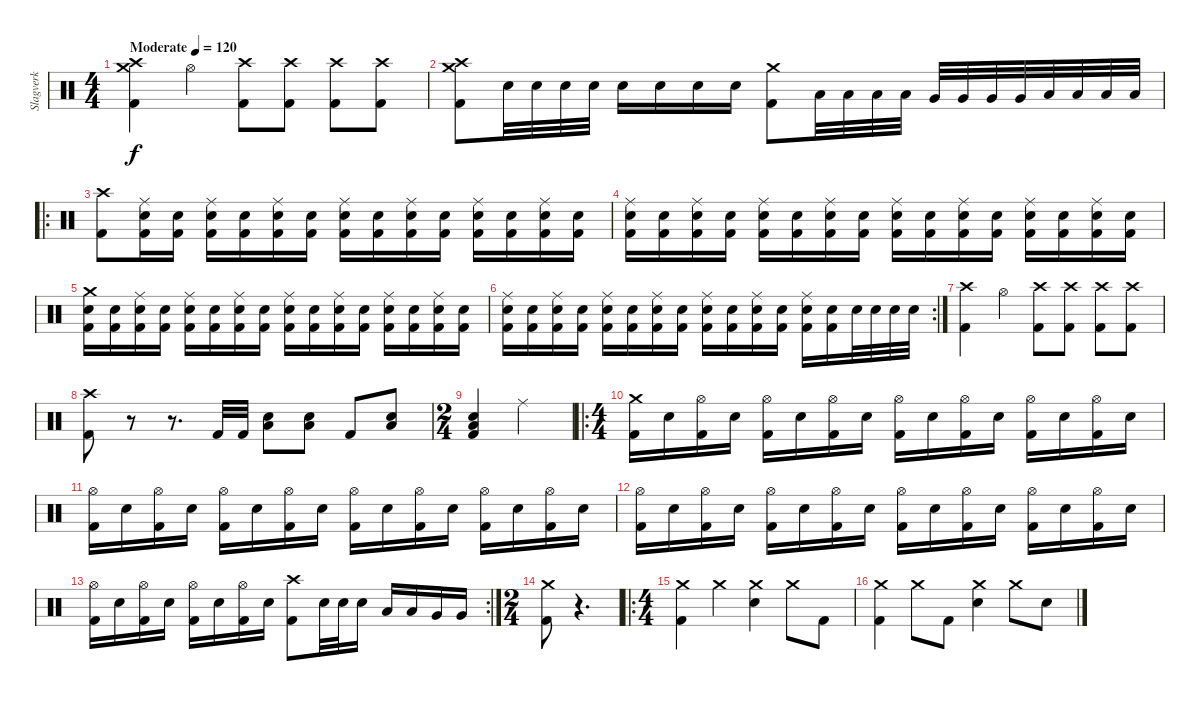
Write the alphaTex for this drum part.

\track ("Slagverk" "Slagverk") {instrument percussion}
\staff {score}
\articulation defaults
\ts (4 4)
\tempo (120 "Moderate")
\clef neutral
\ks c
("Crash medium (hit)" "Crash high (hit)" "Kick (hit) 2").4{dy f} "Hi-Hat (open)".4 ("Crash high (hit)" "Kick (hit) 2").8 ("Crash high (hit)" "Kick (hit) 2").8 ("Crash high (hit)" "Kick (hit) 2").8 ("Crash high (hit)" "Kick (hit) 2").8 |
("Crash high (hit)" "Crash medium (hit)" "Kick (hit) 2").8 "Electric Snare (hit)".32 "Electric Snare (hit)".32 "Electric Snare (hit)".32 "Electric Snare (hit)".32 "Electric Snare (hit)".16 "Electric Snare (hit)".16 "Electric Snare (hit)".16 "Electric Snare (hit)".16 ("Crash medium (hit)" "Kick (hit) 2").8 "Low Tom (hit)".32 "Low Tom (hit)".32 "Low Tom (hit)".32 "Low Tom (hit)".32 "Very Low Tom (hit)".32 "Very Low Tom (hit)".32 "Very Low Tom (hit)".32 "Very Low Tom (hit)".32 "Low Floor Tom (hit)".32 "Low Floor Tom (hit)".32 "Low Floor Tom (hit)".32 "Low Floor Tom (hit)".32 |
\ro
("Crash high (hit)" "Kick (hit) 2").8 ("Ride (middle)" "Electric Snare (hit)" "Kick (hit) 2").16 ("Electric Snare (hit)" "Kick (hit) 2").16 ("Ride (middle)" "Electric Snare (hit)" "Kick (hit) 2").16 ("Electric Snare (hit)" "Kick (hit) 2").16 ("Ride (middle)" "Electric Snare (hit)" "Kick (hit) 2").16 ("Electric Snare (hit)" "Kick (hit) 2").16 ("Ride (middle)" "Electric Snare (hit)" "Kick (hit) 2").16 ("Electric Snare (hit)" "Kick (hit) 2").16 ("Ride (middle)" "Electric Snare (hit)" "Kick (hit) 2").16 ("Electric Snare (hit)" "Kick (hit) 2").16 ("Ride (middle)" "Electric Snare (hit)" "Kick (hit) 2").16 ("Electric Snare (hit)" "Kick (hit) 2").16 ("Ride (middle)" "Electric Snare (hit)" "Kick (hit) 2").16 ("Electric Snare (hit)" "Kick (hit) 2").16 |
("Ride (middle)" "Electric Snare (hit)" "Kick (hit) 2").16 ("Electric Snare (hit)" "Kick (hit) 2").16 ("Ride (middle)" "Electric Snare (hit)" "Kick (hit) 2").16 ("Electric Snare (hit)" "Kick (hit) 2").16 ("Ride (middle)" "Electric Snare (hit)" "Kick (hit) 2").16 ("Electric Snare (hit)" "Kick (hit) 2").16 ("Ride (middle)" "Electric Snare (hit)" "Kick (hit) 2").16 ("Electric Snare (hit)" "Kick (hit) 2").16 ("Ride (middle)" "Electric Snare (hit)" "Kick (hit) 2").16 ("Electric Snare (hit)" "Kick (hit) 2").16 ("Ride (middle)" "Electric Snare (hit)" "Kick (hit) 2").16 ("Electric Snare (hit)" "Kick (hit) 2").16 ("Ride (middle)" "Electric Snare (hit)" "Kick (hit) 2").16 ("Electric Snare (hit)" "Kick (hit) 2").16 ("Ride (middle)" "Electric Snare (hit)" "Kick (hit) 2").16 ("Electric Snare (hit)" "Kick (hit) 2").16 |
("Crash medium (hit)" "Electric Snare (hit)" "Kick (hit) 2").16 ("Electric Snare (hit)" "Kick (hit) 2").16 ("Ride (middle)" "Electric Snare (hit)" "Kick (hit) 2").16 ("Electric Snare (hit)" "Kick (hit) 2").16 ("Ride (middle)" "Electric Snare (hit)" "Kick (hit) 2").16 ("Electric Snare (hit)" "Kick (hit) 2").16 ("Ride (middle)" "Electric Snare (hit)" "Kick (hit) 2").16 ("Electric Snare (hit)" "Kick (hit) 2").16 ("Ride (middle)" "Electric Snare (hit)" "Kick (hit) 2").16 ("Electric Snare (hit)" "Kick (hit) 2").16 ("Ride (middle)" "Electric Snare (hit)" "Kick (hit) 2").16 ("Electric Snare (hit)" "Kick (hit) 2").16 ("Ride (middle)" "Electric Snare (hit)" "Kick (hit) 2").16 ("Electric Snare (hit)" "Kick (hit) 2").16 ("Ride (middle)" "Electric Snare (hit)" "Kick (hit) 2").16 ("Electric Snare (hit)" "Kick (hit) 2").16 |
\rc 2
("Ride (middle)" "Electric Snare (hit)" "Kick (hit) 2").16 ("Electric Snare (hit)" "Kick (hit) 2").16 ("Ride (middle)" "Electric Snare (hit)" "Kick (hit) 2").16 ("Electric Snare (hit)" "Kick (hit) 2").16 ("Ride (middle)" "Electric Snare (hit)" "Kick (hit) 2").16 ("Electric Snare (hit)" "Kick (hit) 2").16 ("Ride (middle)" "Electric Snare (hit)" "Kick (hit) 2").16 ("Electric Snare (hit)" "Kick (hit) 2").16 ("Ride (middle)" "Electric Snare (hit)" "Kick (hit) 2").16 ("Electric Snare (hit)" "Kick (hit) 2").16 ("Ride (middle)" "Electric Snare (hit)" "Kick (hit) 2").16 ("Electric Snare (hit)" "Kick (hit) 2").16 ("Ride (middle)" "Electric Snare (hit)" "Kick (hit) 2").16 ("Electric Snare (hit)" "Kick (hit) 2").16 "Electric Snare (hit)".32 "Electric Snare (hit)".32 "Electric Snare (hit)".32 "Electric Snare (hit)".32 |
("Crash high (hit)" "Kick (hit) 2").4 "Hi-Hat (open)".4 ("Crash high (hit)" "Kick (hit) 2").8 ("Crash high (hit)" "Kick (hit) 2").8 ("Crash high (hit)" "Kick (hit) 2").8 ("Crash high (hit)" "Kick (hit) 2").8 |
("Crash high (hit)" "Kick (hit) 2").8 r.8{volume 0} r.8{d} "Kick (hit) 2".32{volume 13} "Kick (hit) 2".32 ("Electric Snare (hit)" "Low Floor Tom (hit)").8 ("Electric Snare (hit)" "Low Floor Tom (hit)").8 "Kick (hit) 2".8 ("Electric Snare (hit)" "Low Floor Tom (hit)").8 |
\ts (2 4)
("Electric Snare (hit)" "Low Floor Tom (hit)" "Kick (hit) 2").4 "Ride (middle)".4 |
\ro
\ts (4 4)
("Crash medium (hit)" "Kick (hit) 2").16 "Electric Snare (hit)".16 ("Hi-Hat (open)" "Kick (hit) 2").16 "Electric Snare (hit)".16 ("Hi-Hat (open)" "Kick (hit) 2").16 "Electric Snare (hit)".16 ("Hi-Hat (open)" "Kick (hit) 2").16 "Electric Snare (hit)".16 ("Hi-Hat (open)" "Kick (hit) 2").16 "Electric Snare (hit)".16 ("Hi-Hat (open)" "Kick (hit) 2").16 "Electric Snare (hit)".16 ("Hi-Hat (open)" "Kick (hit) 2").16 "Electric Snare (hit)".16 ("Hi-Hat (open)" "Kick (hit) 2").16 "Electric Snare (hit)".16 |
("Hi-Hat (open)" "Kick (hit) 2").16 "Electric Snare (hit)".16 ("Hi-Hat (open)" "Kick (hit) 2").16 "Electric Snare (hit)".16 ("Hi-Hat (open)" "Kick (hit) 2").16 "Electric Snare (hit)".16 ("Hi-Hat (open)" "Kick (hit) 2").16 "Electric Snare (hit)".16 ("Hi-Hat (open)" "Kick (hit) 2").16 "Electric Snare (hit)".16 ("Hi-Hat (open)" "Kick (hit) 2").16 "Electric Snare (hit)".16 ("Hi-Hat (open)" "Kick (hit) 2").16 "Electric Snare (hit)".16 ("Hi-Hat (open)" "Kick (hit) 2").16 "Electric Snare (hit)".16 |
("Hi-Hat (open)" "Kick (hit) 2").16 "Electric Snare (hit)".16 ("Hi-Hat (open)" "Kick (hit) 2").16 "Electric Snare (hit)".16 ("Hi-Hat (open)" "Kick (hit) 2").16 "Electric Snare (hit)".16 ("Hi-Hat (open)" "Kick (hit) 2").16 "Electric Snare (hit)".16 ("Hi-Hat (open)" "Kick (hit) 2").16 "Electric Snare (hit)".16 ("Hi-Hat (open)" "Kick (hit) 2").16 "Electric Snare (hit)".16 ("Hi-Hat (open)" "Kick (hit) 2").16 "Electric Snare (hit)".16 ("Hi-Hat (open)" "Kick (hit) 2").16 "Electric Snare (hit)".16 |
\rc 2
("Hi-Hat (open)" "Kick (hit) 2").16 "Electric Snare (hit)".16 ("Hi-Hat (open)" "Kick (hit) 2").16 "Electric Snare (hit)".16 ("Hi-Hat (open)" "Kick (hit) 2").16 "Electric Snare (hit)".16 ("Hi-Hat (open)" "Kick (hit) 2").16 "Electric Snare (hit)".16 ("Crash high (hit)" "Kick (hit) 2").8 "Electric Snare (hit)".32 "Electric Snare (hit)".32 "Electric Snare (hit)".16 "Low Tom (hit)".16 "Low Tom (hit)".16 "Very Low Tom (hit)".16 "Very Low Tom (hit)".16 |
\ts (2 4)
("Crash medium (hit)" "Kick (hit) 2").8 r.4{d volume 0} |
\ro
\ts (4 4)
("Crash medium (hit)" "Kick (hit) 2").4{volume 13} "Crash medium (hit)".4 ("Crash medium (hit)" "Electric Snare (hit)").4 "Crash medium (hit)".8 "Kick (hit) 2".8 |
("Crash medium (hit)" "Kick (hit) 2").4 "Crash medium (hit)".8 "Kick (hit) 2".8 ("Crash medium (hit)" "Electric Snare (hit)").4 "Crash medium (hit)".8 "Electric Snare (hit)".8
